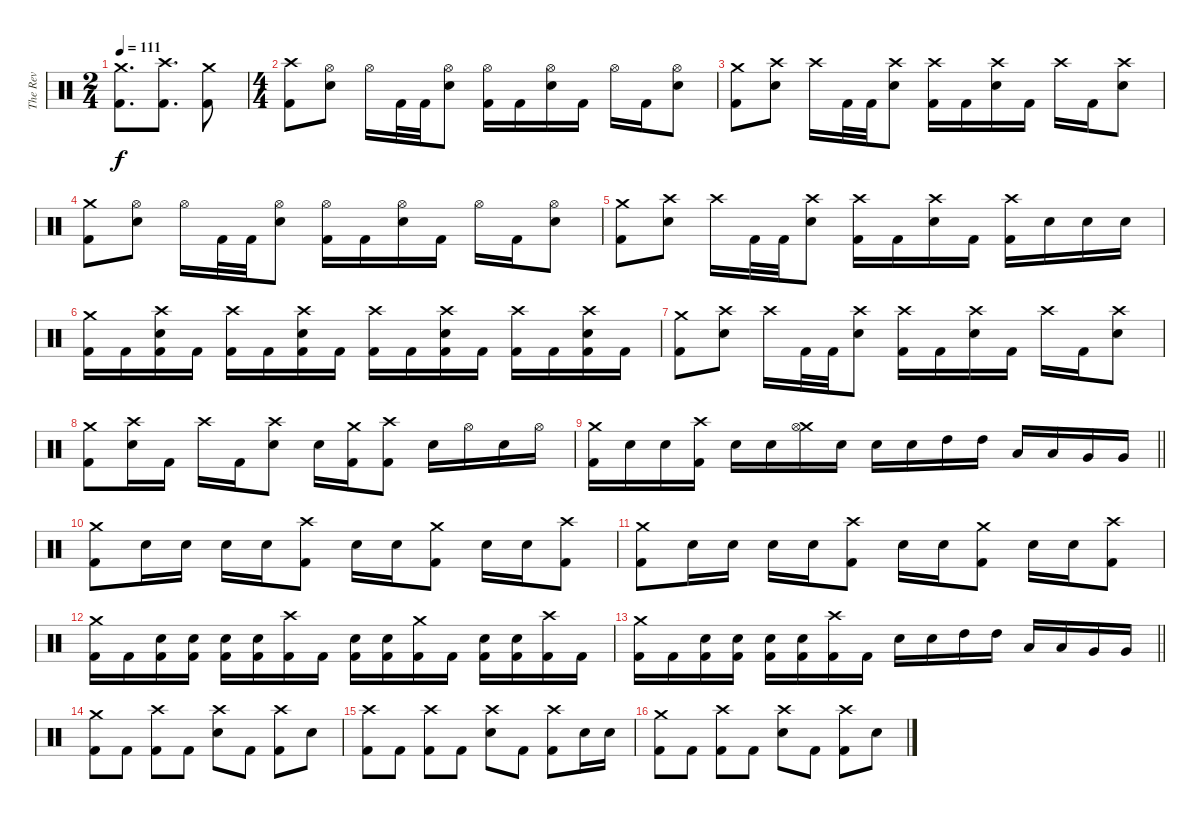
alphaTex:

\track ("The Rev" "The Rev") {instrument percussion}
\staff {score}
\articulation defaults
\ts (2 4)
\tempo 111
\clef neutral
\ks c
("Crash medium (hit)" "Kick (hit) 2").8{d dy f} ("Crash high (hit)" "Kick (hit) 2").8{d} ("Crash medium (hit)" "Kick (hit) 2").8 |
\ts (4 4)
("Crash high (hit)" "Kick (hit) 2").8 ("Hi-Hat (open)" "Snare (hit) 2").8 "Hi-Hat (open)".16 "Kick (hit) 2".32 "Kick (hit) 2".32 ("Hi-Hat (open)" "Snare (hit) 2").8 ("Hi-Hat (open)" "Kick (hit) 2").16 "Kick (hit) 2".16 ("Hi-Hat (open)" "Snare (hit) 2").16 "Kick (hit) 2".16 "Hi-Hat (open)".16 "Kick (hit) 2".16 ("Hi-Hat (open)" "Snare (hit) 2").8 |
("Crash medium (hit)" "Kick (hit) 2").8 ("Crash high (hit)" "Snare (hit) 2").8 "Crash high (hit)".16 "Kick (hit) 2".32 "Kick (hit) 2".32 ("Crash high (hit)" "Snare (hit) 2").8 ("Crash high (hit)" "Kick (hit) 2").16 "Kick (hit) 2".16 ("Crash high (hit)" "Snare (hit) 2").16 "Kick (hit) 2".16 "Crash high (hit)".16 "Kick (hit) 2".16 ("Crash high (hit)" "Snare (hit) 2").8 |
("Crash medium (hit)" "Kick (hit) 2").8 ("Hi-Hat (open)" "Snare (hit) 2").8 "Hi-Hat (open)".16 "Kick (hit) 2".32 "Kick (hit) 2".32 ("Hi-Hat (open)" "Snare (hit) 2").8 ("Hi-Hat (open)" "Kick (hit) 2").16 "Kick (hit) 2".16 ("Hi-Hat (open)" "Snare (hit) 2").16 "Kick (hit) 2".16 "Hi-Hat (open)".16 "Kick (hit) 2".16 ("Hi-Hat (open)" "Snare (hit) 2").8 |
("Crash medium (hit)" "Kick (hit) 2").8 ("Crash high (hit)" "Snare (hit) 2").8 "Crash high (hit)".16 "Kick (hit) 2".32 "Kick (hit) 2".32 ("Crash high (hit)" "Snare (hit) 2").8 ("Crash high (hit)" "Kick (hit) 2").16 "Kick (hit) 2".16 ("Crash high (hit)" "Snare (hit) 2").16 "Kick (hit) 2".16 ("Crash high (hit)" "Kick (hit) 2").16 "Snare (hit) 2".16 "Snare (hit) 2".16 "Snare (hit) 2".16 |
("Crash medium (hit)" "Kick (hit) 2").16 "Kick (hit) 2".16 ("Crash high (hit)" "Snare (hit) 2" "Kick (hit) 2").16 "Kick (hit) 2".16 ("Crash high (hit)" "Kick (hit) 2").16 "Kick (hit) 2".16 ("Crash high (hit)" "Snare (hit) 2" "Kick (hit) 2").16 "Kick (hit) 2".16 ("Crash high (hit)" "Kick (hit) 2").16 "Kick (hit) 2".16 ("Crash high (hit)" "Snare (hit) 2" "Kick (hit) 2").16 "Kick (hit) 2".16 ("Crash high (hit)" "Kick (hit) 2").16 "Kick (hit) 2".16 ("Crash high (hit)" "Snare (hit) 2" "Kick (hit) 2").16 "Kick (hit) 2".16 |
("Crash medium (hit)" "Kick (hit) 2").8 ("Crash high (hit)" "Snare (hit) 2").8 "Crash high (hit)".16 "Kick (hit) 2".32 "Kick (hit) 2".32 ("Crash high (hit)" "Snare (hit) 2").8 ("Crash high (hit)" "Kick (hit) 2").16 "Kick (hit) 2".16 ("Crash high (hit)" "Snare (hit) 2").16 "Kick (hit) 2".16 "Crash high (hit)".16 "Kick (hit) 2".16 ("Crash high (hit)" "Snare (hit) 2").8 |
("Crash medium (hit)" "Kick (hit) 2").8 ("Crash high (hit)" "Snare (hit) 2").16 "Kick (hit) 2".16 "Crash high (hit)".16 "Kick (hit) 2".16 ("Crash high (hit)" "Snare (hit) 2").8 "Snare (hit) 2".16 ("Crash medium (hit)" "Kick (hit) 2").16 ("Crash high (hit)" "Kick (hit) 2").8 "Snare (hit) 2".16 "Hi-Hat (open)".16 "Snare (hit) 2".16 "Hi-Hat (open)".16 |
\barLineRight lightlight
("Crash medium (hit)" "Kick (hit) 2").16 "Snare (hit) 2".16 "Snare (hit) 2".16 ("Crash high (hit)" "Kick (hit) 2").16 "Snare (hit) 2".16 "Snare (hit) 2".16 ("Crash medium (hit)" "Hi-Hat (open)").16 "Snare (hit) 2".16 "Snare (hit) 2".16 "Snare (hit) 2".16 "High Tom (hit)".16 "High Tom (hit)".16 "Low Tom (hit)".16 "Low Tom (hit)".16 "Very Low Tom (hit)".16 "Very Low Tom (hit)".16 |
("Crash medium (hit)" "Kick (hit) 2").8 "Snare (hit) 2".16 "Snare (hit) 2".16 "Snare (hit) 2".16 "Snare (hit) 2".16 ("Crash high (hit)" "Kick (hit) 2").8 "Snare (hit) 2".16 "Snare (hit) 2".16 ("Crash medium (hit)" "Kick (hit) 2").8 "Snare (hit) 2".16 "Snare (hit) 2".16 ("Crash high (hit)" "Kick (hit) 2").8 |
("Crash medium (hit)" "Kick (hit) 2").8 "Snare (hit) 2".16 "Snare (hit) 2".16 "Snare (hit) 2".16 "Snare (hit) 2".16 ("Crash high (hit)" "Kick (hit) 2").8 "Snare (hit) 2".16 "Snare (hit) 2".16 ("Crash medium (hit)" "Kick (hit) 2").8 "Snare (hit) 2".16 "Snare (hit) 2".16 ("Crash high (hit)" "Kick (hit) 2").8 |
("Crash medium (hit)" "Kick (hit) 2").16 "Kick (hit) 2".16 ("Snare (hit) 2" "Kick (hit) 2").16 ("Snare (hit) 2" "Kick (hit) 2").16 ("Snare (hit) 2" "Kick (hit) 2").16 ("Snare (hit) 2" "Kick (hit) 2").16 ("Crash high (hit)" "Kick (hit) 2").16 "Kick (hit) 2".16 ("Snare (hit) 2" "Kick (hit) 2").16 ("Snare (hit) 2" "Kick (hit) 2").16 ("Crash medium (hit)" "Kick (hit) 2").16 "Kick (hit) 2".16 ("Snare (hit) 2" "Kick (hit) 2").16 ("Snare (hit) 2" "Kick (hit) 2").16 ("Crash high (hit)" "Kick (hit) 2").16 "Kick (hit) 2".16 |
\barLineRight lightlight
("Crash medium (hit)" "Kick (hit) 2").16 "Kick (hit) 2".16 ("Snare (hit) 2" "Kick (hit) 2").16 ("Snare (hit) 2" "Kick (hit) 2").16 ("Snare (hit) 2" "Kick (hit) 2").16 ("Snare (hit) 2" "Kick (hit) 2").16 ("Crash high (hit)" "Kick (hit) 2").16 "Kick (hit) 2".16 "Snare (hit) 2".16 "Snare (hit) 2".16 "High Tom (hit)".16 "High Tom (hit)".16 "Low Tom (hit)".16 "Low Tom (hit)".16 "Very Low Tom (hit)".16 "Very Low Tom (hit)".16 |
("Crash medium (hit)" "Kick (hit) 2").8 "Kick (hit) 2".8 ("Crash high (hit)" "Kick (hit) 2").8 "Kick (hit) 2".8 ("Crash high (hit)" "Snare (hit) 2").8 "Kick (hit) 2".8 ("Crash high (hit)" "Kick (hit) 2").8 "Snare (hit) 2".8 |
("Crash high (hit)" "Kick (hit) 2").8 "Kick (hit) 2".8 ("Crash high (hit)" "Kick (hit) 2").8 "Kick (hit) 2".8 ("Crash high (hit)" "Snare (hit) 2").8 "Kick (hit) 2".8 ("Crash high (hit)" "Kick (hit) 2").8 "Snare (hit) 2".16 "Snare (hit) 2".16 |
("Crash medium (hit)" "Kick (hit) 2").8 "Kick (hit) 2".8 ("Crash high (hit)" "Kick (hit) 2").8 "Kick (hit) 2".8 ("Crash high (hit)" "Snare (hit) 2").8 "Kick (hit) 2".8 ("Crash high (hit)" "Kick (hit) 2").8 "Snare (hit) 2".8
